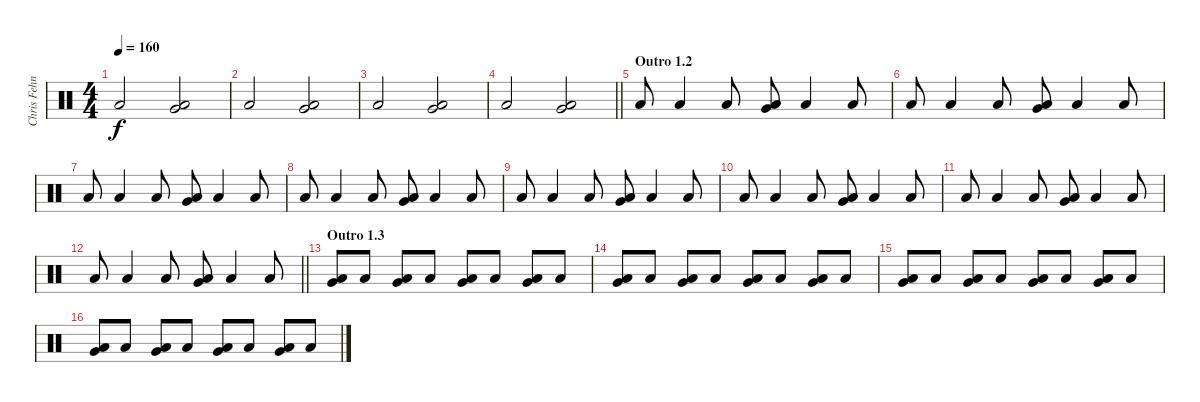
\track ("Chris Fehn" "Chris Fehn") {instrument percussion}
\staff {score}
\articulation defaults
\ts (4 4)
\tempo 160
\clef neutral
\ks c "Low Floor Tom (hit)".2{dy f}
("Very Low Tom (hit)" "Low Floor Tom (hit)").2 |
"Low Floor Tom (hit)".2 ("Very Low Tom (hit)" "Low Floor Tom (hit)").2 |
"Low Floor Tom (hit)".2 ("Very Low Tom (hit)" "Low Floor Tom (hit)").2 |
\barLineRight lightlight "Low Floor Tom (hit)".2
("Very Low Tom (hit)" "Low Floor Tom (hit)").2 |
\section ("" "Outro 1.2")
"Low Floor Tom (hit)".8 "Low Floor Tom (hit)".4 "Low Floor Tom (hit)".8 ("Very Low Tom (hit)" "Low Floor Tom (hit)").8 "Low Floor Tom (hit)".4 "Low Floor Tom (hit)".8 |
"Low Floor Tom (hit)".8 "Low Floor Tom (hit)".4 "Low Floor Tom (hit)".8 ("Very Low Tom (hit)" "Low Floor Tom (hit)").8 "Low Floor Tom (hit)".4 "Low Floor Tom (hit)".8 |
"Low Floor Tom (hit)".8 "Low Floor Tom (hit)".4 "Low Floor Tom (hit)".8 ("Very Low Tom (hit)" "Low Floor Tom (hit)").8 "Low Floor Tom (hit)".4 "Low Floor Tom (hit)".8 |
"Low Floor Tom (hit)".8 "Low Floor Tom (hit)".4 "Low Floor Tom (hit)".8 ("Very Low Tom (hit)" "Low Floor Tom (hit)").8 "Low Floor Tom (hit)".4 "Low Floor Tom (hit)".8 |
"Low Floor Tom (hit)".8 "Low Floor Tom (hit)".4 "Low Floor Tom (hit)".8 ("Very Low Tom (hit)" "Low Floor Tom (hit)").8 "Low Floor Tom (hit)".4 "Low Floor Tom (hit)".8 |
"Low Floor Tom (hit)".8 "Low Floor Tom (hit)".4 "Low Floor Tom (hit)".8 ("Very Low Tom (hit)" "Low Floor Tom (hit)").8 "Low Floor Tom (hit)".4 "Low Floor Tom (hit)".8 |
"Low Floor Tom (hit)".8 "Low Floor Tom (hit)".4 "Low Floor Tom (hit)".8 ("Very Low Tom (hit)" "Low Floor Tom (hit)").8 "Low Floor Tom (hit)".4 "Low Floor Tom (hit)".8 |
\barLineRight lightlight "Low Floor Tom (hit)".8 "Low Floor Tom (hit)".4 "Low Floor Tom (hit)".8
("Very Low Tom (hit)" "Low Floor Tom (hit)").8 "Low Floor Tom (hit)".4 "Low Floor Tom (hit)".8 |
\section ("" "Outro 1.3")
("Very Low Tom (hit)" "Low Floor Tom (hit)").8 "Low Floor Tom (hit)".8 ("Very Low Tom (hit)" "Low Floor Tom (hit)").8 "Low Floor Tom (hit)".8 ("Very Low Tom (hit)" "Low Floor Tom (hit)").8 "Low Floor Tom (hit)".8 ("Very Low Tom (hit)" "Low Floor Tom (hit)").8 "Low Floor Tom (hit)".8 |
("Very Low Tom (hit)" "Low Floor Tom (hit)").8 "Low Floor Tom (hit)".8 ("Very Low Tom (hit)" "Low Floor Tom (hit)").8 "Low Floor Tom (hit)".8 ("Very Low Tom (hit)" "Low Floor Tom (hit)").8 "Low Floor Tom (hit)".8 ("Very Low Tom (hit)" "Low Floor Tom (hit)").8 "Low Floor Tom (hit)".8 |
("Very Low Tom (hit)" "Low Floor Tom (hit)").8 "Low Floor Tom (hit)".8 ("Very Low Tom (hit)" "Low Floor Tom (hit)").8 "Low Floor Tom (hit)".8 ("Very Low Tom (hit)" "Low Floor Tom (hit)").8 "Low Floor Tom (hit)".8 ("Very Low Tom (hit)" "Low Floor Tom (hit)").8 "Low Floor Tom (hit)".8 |
("Very Low Tom (hit)" "Low Floor Tom (hit)").8 "Low Floor Tom (hit)".8 ("Very Low Tom (hit)" "Low Floor Tom (hit)").8 "Low Floor Tom (hit)".8 ("Very Low Tom (hit)" "Low Floor Tom (hit)").8 "Low Floor Tom (hit)".8 ("Very Low Tom (hit)" "Low Floor Tom (hit)").8 "Low Floor Tom (hit)".8
